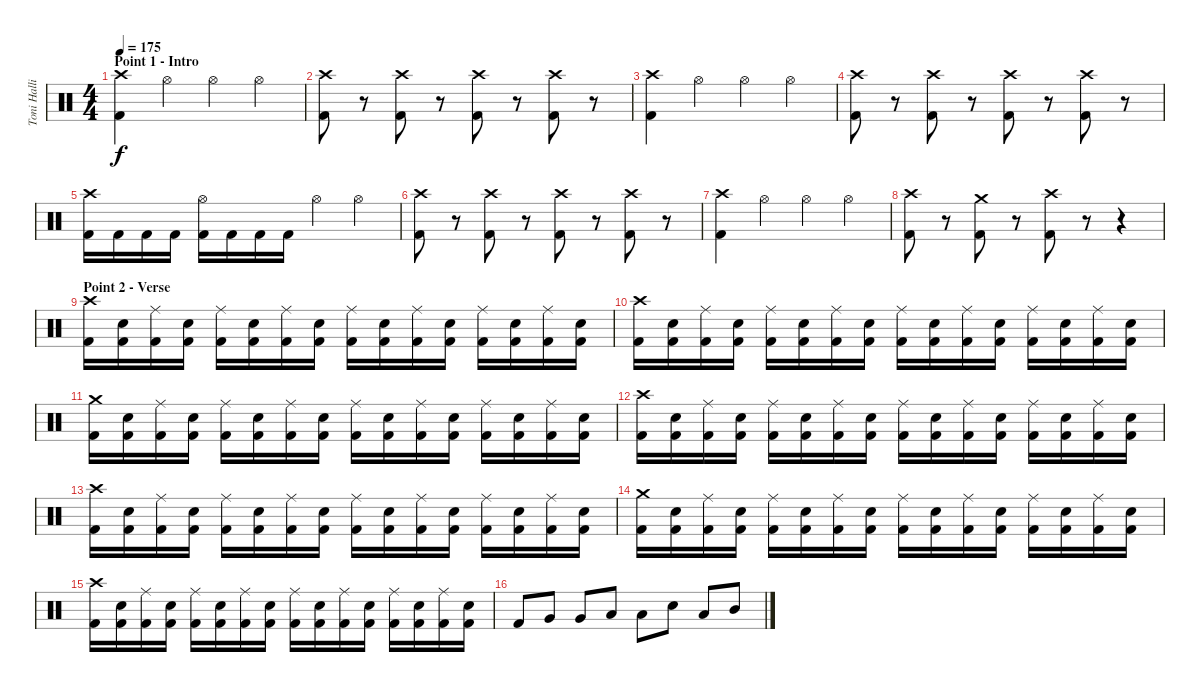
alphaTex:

\track ("Toni Hallio" "Toni Halli") {instrument percussion}
\staff {score}
\articulation defaults
\ts (4 4)
\section ("" "Point 1 - Intro")
\tempo 175
\clef neutral
\ks c
("Crash high (hit)" "Kick (hit) 2").4{dy f} "Hi-Hat (open)".4 "Hi-Hat (open)".4 "Hi-Hat (open)".4 |
("Crash high (hit)" "Kick (hit) 2").8 r.8 ("Crash high (hit)" "Kick (hit) 2").8 r.8 ("Crash high (hit)" "Kick (hit) 2").8 r.8 ("Crash high (hit)" "Kick (hit) 2").8 r.8 |
("Crash high (hit)" "Kick (hit) 2").4 "Hi-Hat (open)".4 "Hi-Hat (open)".4 "Hi-Hat (open)".4 |
("Crash high (hit)" "Kick (hit) 2").8 r.8 ("Crash high (hit)" "Kick (hit) 2").8 r.8 ("Crash high (hit)" "Kick (hit) 2").8 r.8 ("Crash high (hit)" "Kick (hit) 2").8 r.8 |
("Crash high (hit)" "Kick (hit) 2").16 "Kick (hit) 2".16 "Kick (hit) 2".16 "Kick (hit) 2".16 ("Hi-Hat (open)" "Kick (hit) 2").16 "Kick (hit) 2".16 "Kick (hit) 2".16 "Kick (hit) 2".16 "Hi-Hat (open)".4 "Hi-Hat (open)".4 |
("Crash high (hit)" "Kick (hit) 2").8 r.8 ("Crash high (hit)" "Kick (hit) 2").8 r.8 ("Crash high (hit)" "Kick (hit) 2").8 r.8 ("Crash high (hit)" "Kick (hit) 2").8 r.8 |
("Crash high (hit)" "Kick (hit) 2").4 "Hi-Hat (open)".4 "Hi-Hat (open)".4 "Hi-Hat (open)".4 |
("Crash high (hit)" "Kick (hit) 2").8 r.8 ("Crash medium (hit)" "Kick (hit) 2").8 r.8 ("Crash high (hit)" "Kick (hit) 2").8 r.8 r.4 |
\section ("" "Point 2 - Verse")
("Crash high (hit)" "Kick (hit) 2").16 ("Snare (hit) 2" "Kick (hit) 2").16 ("Ride (middle)" "Kick (hit) 2").16 ("Snare (hit) 2" "Kick (hit) 2").16 ("Ride (middle)" "Kick (hit) 2").16 ("Snare (hit) 2" "Kick (hit) 2").16 ("Ride (middle)" "Kick (hit) 2").16 ("Snare (hit) 2" "Kick (hit) 2").16 ("Ride (middle)" "Kick (hit) 2").16 ("Snare (hit) 2" "Kick (hit) 2").16 ("Ride (middle)" "Kick (hit) 2").16 ("Snare (hit) 2" "Kick (hit) 2").16 ("Ride (middle)" "Kick (hit) 2").16 ("Snare (hit) 2" "Kick (hit) 2").16 ("Ride (middle)" "Kick (hit) 2").16 ("Snare (hit) 2" "Kick (hit) 2").16 |
("Crash high (hit)" "Kick (hit) 2").16 ("Snare (hit) 2" "Kick (hit) 2").16 ("Ride (middle)" "Kick (hit) 2").16 ("Snare (hit) 2" "Kick (hit) 2").16 ("Ride (middle)" "Kick (hit) 2").16 ("Snare (hit) 2" "Kick (hit) 2").16 ("Ride (middle)" "Kick (hit) 2").16 ("Snare (hit) 2" "Kick (hit) 2").16 ("Ride (middle)" "Kick (hit) 2").16 ("Snare (hit) 2" "Kick (hit) 2").16 ("Ride (middle)" "Kick (hit) 2").16 ("Snare (hit) 2" "Kick (hit) 2").16 ("Ride (middle)" "Kick (hit) 2").16 ("Snare (hit) 2" "Kick (hit) 2").16 ("Ride (middle)" "Kick (hit) 2").16 ("Snare (hit) 2" "Kick (hit) 2").16 |
("Crash medium (hit)" "Kick (hit) 2").16 ("Snare (hit) 2" "Kick (hit) 2").16 ("Ride (middle)" "Kick (hit) 2").16 ("Snare (hit) 2" "Kick (hit) 2").16 ("Ride (middle)" "Kick (hit) 2").16 ("Snare (hit) 2" "Kick (hit) 2").16 ("Ride (middle)" "Kick (hit) 2").16 ("Snare (hit) 2" "Kick (hit) 2").16 ("Ride (middle)" "Kick (hit) 2").16 ("Snare (hit) 2" "Kick (hit) 2").16 ("Ride (middle)" "Kick (hit) 2").16 ("Snare (hit) 2" "Kick (hit) 2").16 ("Ride (middle)" "Kick (hit) 2").16 ("Snare (hit) 2" "Kick (hit) 2").16 ("Ride (middle)" "Kick (hit) 2").16 ("Snare (hit) 2" "Kick (hit) 2").16 |
("Crash high (hit)" "Kick (hit) 2").16 ("Snare (hit) 2" "Kick (hit) 2").16 ("Ride (middle)" "Kick (hit) 2").16 ("Snare (hit) 2" "Kick (hit) 2").16 ("Ride (middle)" "Kick (hit) 2").16 ("Snare (hit) 2" "Kick (hit) 2").16 ("Ride (middle)" "Kick (hit) 2").16 ("Snare (hit) 2" "Kick (hit) 2").16 ("Ride (middle)" "Kick (hit) 2").16 ("Snare (hit) 2" "Kick (hit) 2").16 ("Ride (middle)" "Kick (hit) 2").16 ("Snare (hit) 2" "Kick (hit) 2").16 ("Ride (middle)" "Kick (hit) 2").16 ("Snare (hit) 2" "Kick (hit) 2").16 ("Ride (middle)" "Kick (hit) 2").16 ("Snare (hit) 2" "Kick (hit) 2").16 |
("Crash high (hit)" "Kick (hit) 2").16 ("Snare (hit) 2" "Kick (hit) 2").16 ("Ride (middle)" "Kick (hit) 2").16 ("Snare (hit) 2" "Kick (hit) 2").16 ("Ride (middle)" "Kick (hit) 2").16 ("Snare (hit) 2" "Kick (hit) 2").16 ("Ride (middle)" "Kick (hit) 2").16 ("Snare (hit) 2" "Kick (hit) 2").16 ("Ride (middle)" "Kick (hit) 2").16 ("Snare (hit) 2" "Kick (hit) 2").16 ("Ride (middle)" "Kick (hit) 2").16 ("Snare (hit) 2" "Kick (hit) 2").16 ("Ride (middle)" "Kick (hit) 2").16 ("Snare (hit) 2" "Kick (hit) 2").16 ("Ride (middle)" "Kick (hit) 2").16 ("Snare (hit) 2" "Kick (hit) 2").16 |
("Crash medium (hit)" "Kick (hit) 2").16 ("Snare (hit) 2" "Kick (hit) 2").16 ("Ride (middle)" "Kick (hit) 2").16 ("Snare (hit) 2" "Kick (hit) 2").16 ("Ride (middle)" "Kick (hit) 2").16 ("Snare (hit) 2" "Kick (hit) 2").16 ("Ride (middle)" "Kick (hit) 2").16 ("Snare (hit) 2" "Kick (hit) 2").16 ("Ride (middle)" "Kick (hit) 2").16 ("Snare (hit) 2" "Kick (hit) 2").16 ("Ride (middle)" "Kick (hit) 2").16 ("Snare (hit) 2" "Kick (hit) 2").16 ("Ride (middle)" "Kick (hit) 2").16 ("Snare (hit) 2" "Kick (hit) 2").16 ("Ride (middle)" "Kick (hit) 2").16 ("Snare (hit) 2" "Kick (hit) 2").16 |
("Crash high (hit)" "Kick (hit) 2").16 ("Snare (hit) 2" "Kick (hit) 2").16 ("Ride (middle)" "Kick (hit) 2").16 ("Snare (hit) 2" "Kick (hit) 2").16 ("Ride (middle)" "Kick (hit) 2").16 ("Snare (hit) 2" "Kick (hit) 2").16 ("Ride (middle)" "Kick (hit) 2").16 ("Snare (hit) 2" "Kick (hit) 2").16 ("Ride (middle)" "Kick (hit) 2").16 ("Snare (hit) 2" "Kick (hit) 2").16 ("Ride (middle)" "Kick (hit) 2").16 ("Snare (hit) 2" "Kick (hit) 2").16 ("Ride (middle)" "Kick (hit) 2").16 ("Snare (hit) 2" "Kick (hit) 2").16 ("Ride (middle)" "Kick (hit) 2").16 ("Snare (hit) 2" "Kick (hit) 2").16 |
"Kick (hit) 2".8 "Very Low Tom (hit)".8 "Very Low Tom (hit)".8 "Low Tom (hit)".8 "Low Tom (hit)".8 "Snare (hit) 2".8 "Low Tom (hit)".8 "Mid Tom (hit)".8
